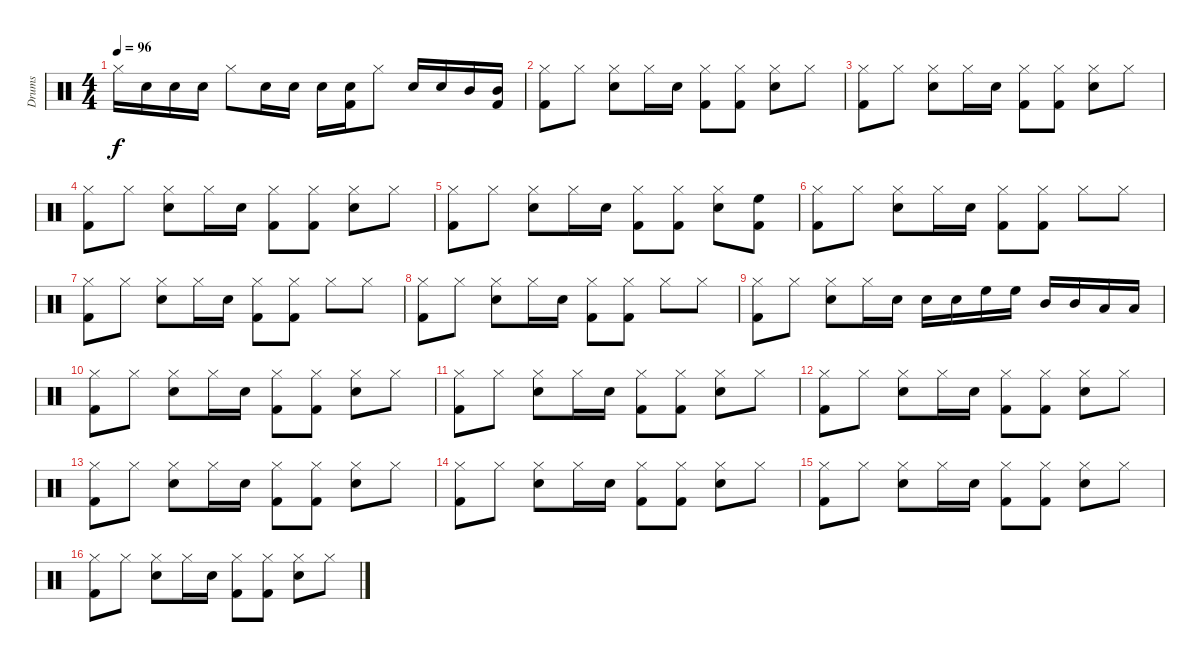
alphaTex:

\track ("Drums" "Drums") {instrument percussion}
\staff {score}
\articulation defaults
\ts (4 4)
\tempo 96
\clef neutral
\ks c "Hi-Hat (closed)".16{dy f} "Snare (hit) 2".16 "Snare (hit) 2".16 "Snare (hit) 2".16 "Hi-Hat (closed)".8 "Snare (hit) 2".16 "Snare (hit) 2".16 "Snare (hit) 2".16
("Snare (hit) 2" "Kick (hit) 2").16 "Hi-Hat (closed)".8 "Snare (hit) 2".16 "Snare (hit) 2".16 "Mid Tom (hit)".16 ("Mid Tom (hit)" "Kick (hit) 2").16 |
("Hi-Hat (closed)" "Kick (hit) 2").8 "Hi-Hat (closed)".8 ("Hi-Hat (closed)" "Snare (hit) 2").8 "Hi-Hat (closed)".16 "Snare (hit) 2".16 ("Hi-Hat (closed)" "Kick (hit) 2").8 ("Hi-Hat (closed)" "Kick (hit) 2").8 ("Hi-Hat (closed)" "Snare (hit) 2").8 "Hi-Hat (closed)".8 |
("Hi-Hat (closed)" "Kick (hit) 2").8 "Hi-Hat (closed)".8 ("Hi-Hat (closed)" "Snare (hit) 2").8 "Hi-Hat (closed)".16 "Snare (hit) 2".16 ("Hi-Hat (closed)" "Kick (hit) 2").8 ("Hi-Hat (closed)" "Kick (hit) 2").8 ("Hi-Hat (closed)" "Snare (hit) 2").8 "Hi-Hat (closed)".8 |
("Hi-Hat (closed)" "Kick (hit) 2").8 "Hi-Hat (closed)".8 ("Hi-Hat (closed)" "Snare (hit) 2").8 "Hi-Hat (closed)".16 "Snare (hit) 2".16 ("Hi-Hat (closed)" "Kick (hit) 2").8 ("Hi-Hat (closed)" "Kick (hit) 2").8 ("Hi-Hat (closed)" "Snare (hit) 2").8 "Hi-Hat (closed)".8 |
("Hi-Hat (closed)" "Kick (hit) 2").8 "Hi-Hat (closed)".8 ("Hi-Hat (closed)" "Snare (hit) 2").8 "Hi-Hat (closed)".16 "Snare (hit) 2".16 ("Hi-Hat (closed)" "Kick (hit) 2").8 ("Hi-Hat (closed)" "Kick (hit) 2").8 ("Hi-Hat (closed)" "Snare (hit) 2").8 ("High Floor Tom (hit)" "Kick (hit) 2").8 |
("Hi-Hat (closed)" "Kick (hit) 2").8 "Hi-Hat (closed)".8 ("Hi-Hat (closed)" "Snare (hit) 2").8 "Hi-Hat (closed)".16 "Snare (hit) 2".16 ("Hi-Hat (closed)" "Kick (hit) 2").8 ("Hi-Hat (closed)" "Kick (hit) 2").8 "Hi-Hat (closed)".8 "Hi-Hat (closed)".8 |
("Hi-Hat (closed)" "Kick (hit) 2").8 "Hi-Hat (closed)".8 ("Hi-Hat (closed)" "Snare (hit) 2").8 "Hi-Hat (closed)".16 "Snare (hit) 2".16 ("Hi-Hat (closed)" "Kick (hit) 2").8 ("Hi-Hat (closed)" "Kick (hit) 2").8 "Hi-Hat (closed)".8 "Hi-Hat (closed)".8 |
("Hi-Hat (closed)" "Kick (hit) 2").8 "Hi-Hat (closed)".8 ("Hi-Hat (closed)" "Snare (hit) 2").8 "Hi-Hat (closed)".16 "Snare (hit) 2".16 ("Hi-Hat (closed)" "Kick (hit) 2").8 ("Hi-Hat (closed)" "Kick (hit) 2").8 "Hi-Hat (closed)".8 "Hi-Hat (closed)".8 |
("Hi-Hat (closed)" "Kick (hit) 2").8 "Hi-Hat (closed)".8 ("Hi-Hat (closed)" "Snare (hit) 2").8 "Hi-Hat (closed)".16 "Snare (hit) 2".16 "Snare (hit) 2".16 "Snare (hit) 2".16 "High Floor Tom (hit)".16 "High Floor Tom (hit)".16 "Mid Tom (hit)".16 "Mid Tom (hit)".16 "Low Tom (hit)".16 "Low Tom (hit)".16 |
("Hi-Hat (closed)" "Kick (hit) 2").8 "Hi-Hat (closed)".8 ("Hi-Hat (closed)" "Snare (hit) 2").8 "Hi-Hat (closed)".16 "Snare (hit) 2".16 ("Hi-Hat (closed)" "Kick (hit) 2").8 ("Hi-Hat (closed)" "Kick (hit) 2").8 ("Hi-Hat (closed)" "Snare (hit) 2").8 "Hi-Hat (closed)".8 |
("Hi-Hat (closed)" "Kick (hit) 2").8 "Hi-Hat (closed)".8 ("Hi-Hat (closed)" "Snare (hit) 2").8 "Hi-Hat (closed)".16 "Snare (hit) 2".16 ("Hi-Hat (closed)" "Kick (hit) 2").8 ("Hi-Hat (closed)" "Kick (hit) 2").8 ("Hi-Hat (closed)" "Snare (hit) 2").8 "Hi-Hat (closed)".8 |
("Hi-Hat (closed)" "Kick (hit) 2").8 "Hi-Hat (closed)".8 ("Hi-Hat (closed)" "Snare (hit) 2").8 "Hi-Hat (closed)".16 "Snare (hit) 2".16 ("Hi-Hat (closed)" "Kick (hit) 2").8 ("Hi-Hat (closed)" "Kick (hit) 2").8 ("Hi-Hat (closed)" "Snare (hit) 2").8 "Hi-Hat (closed)".8 |
("Hi-Hat (closed)" "Kick (hit) 2").8 "Hi-Hat (closed)".8 ("Hi-Hat (closed)" "Snare (hit) 2").8 "Hi-Hat (closed)".16 "Snare (hit) 2".16 ("Hi-Hat (closed)" "Kick (hit) 2").8 ("Hi-Hat (closed)" "Kick (hit) 2").8 ("Hi-Hat (closed)" "Snare (hit) 2").8 "Hi-Hat (closed)".8 |
("Hi-Hat (closed)" "Kick (hit) 2").8 "Hi-Hat (closed)".8 ("Hi-Hat (closed)" "Snare (hit) 2").8 "Hi-Hat (closed)".16 "Snare (hit) 2".16 ("Hi-Hat (closed)" "Kick (hit) 2").8 ("Hi-Hat (closed)" "Kick (hit) 2").8 ("Hi-Hat (closed)" "Snare (hit) 2").8 "Hi-Hat (closed)".8 |
("Hi-Hat (closed)" "Kick (hit) 2").8 "Hi-Hat (closed)".8 ("Hi-Hat (closed)" "Snare (hit) 2").8 "Hi-Hat (closed)".16 "Snare (hit) 2".16 ("Hi-Hat (closed)" "Kick (hit) 2").8 ("Hi-Hat (closed)" "Kick (hit) 2").8 ("Hi-Hat (closed)" "Snare (hit) 2").8 "Hi-Hat (closed)".8 |
("Hi-Hat (closed)" "Kick (hit) 2").8 "Hi-Hat (closed)".8 ("Hi-Hat (closed)" "Snare (hit) 2").8 "Hi-Hat (closed)".16 "Snare (hit) 2".16 ("Hi-Hat (closed)" "Kick (hit) 2").8 ("Hi-Hat (closed)" "Kick (hit) 2").8 ("Hi-Hat (closed)" "Snare (hit) 2").8 "Hi-Hat (closed)".8
